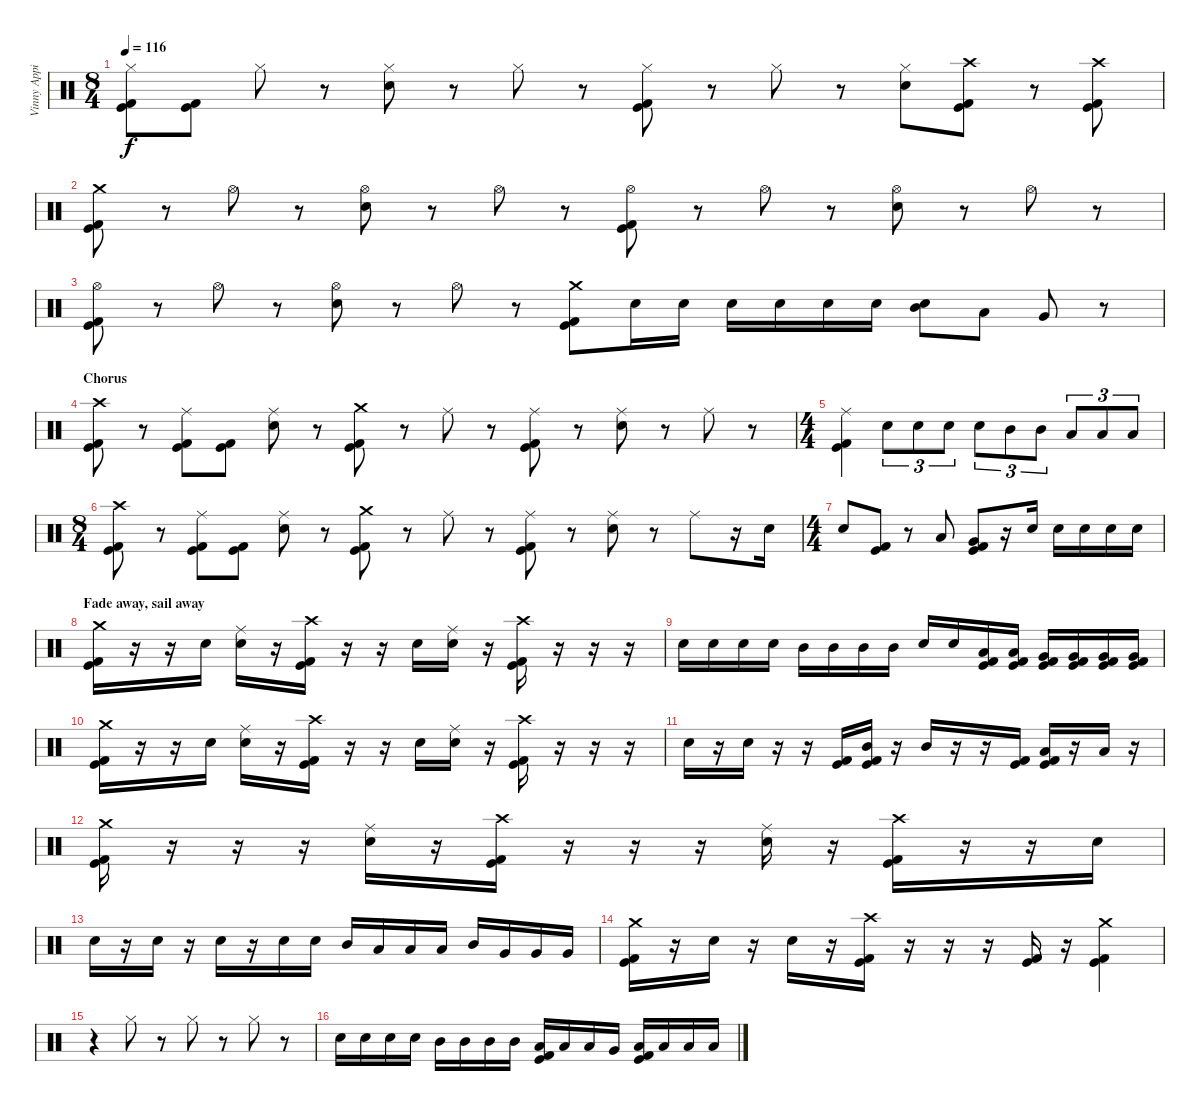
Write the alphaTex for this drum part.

\track ("Vinny Appice" "Vinny Appi") {instrument percussion}
\staff {score}
\articulation defaults
\ts (8 4)
\tempo 116
\clef neutral
\ks c
("Hi-Hat (closed)" "Kick (hit)" "Kick (hit) 2").8{dy f} ("Kick (hit)" "Kick (hit) 2").8 "Hi-Hat (closed)".8 r.8 ("Hi-Hat (closed)" "Snare (hit) 2").8 r.8 "Hi-Hat (closed)".8 r.8 ("Hi-Hat (closed)" "Kick (hit)" "Kick (hit) 2").8 r.8 "Hi-Hat (closed)".8 r.8 ("Hi-Hat (closed)" "Snare (hit) 2").8 ("Crash high (hit)" "Kick (hit)" "Kick (hit) 2").8 r.8 ("Crash high (hit)" "Kick (hit)" "Kick (hit) 2").8 |
("Crash medium (hit)" "Kick (hit)" "Kick (hit) 2").8 r.8 "Hi-Hat (open)".8 r.8 ("Hi-Hat (open)" "Snare (hit) 2").8 r.8 "Hi-Hat (open)".8 r.8 ("Hi-Hat (open)" "Kick (hit)" "Kick (hit) 2").8 r.8 "Hi-Hat (open)".8 r.8 ("Hi-Hat (open)" "Snare (hit) 2").8 r.8 "Hi-Hat (open)".8 r.8 |
("Hi-Hat (open)" "Kick (hit)" "Kick (hit) 2").8 r.8 "Hi-Hat (open)".8 r.8 ("Hi-Hat (open)" "Snare (hit) 2").8 r.8 "Hi-Hat (open)".8 r.8 ("Crash medium (hit)" "Kick (hit)" "Kick (hit) 2").8 "Snare (hit) 2".16 "Snare (hit) 2".16 "Snare (hit) 2".16 "Snare (hit) 2".16 "Snare (hit) 2".16 "Snare (hit) 2".16 ("Mid Tom (hit)" "Snare (hit) 2").8 "Low Tom (hit)".8 "Very Low Tom (hit)".8 r.8 |
\section ("" "Chorus")
("Crash high (hit)" "Kick (hit)" "Kick (hit) 2").8 r.8 ("Ride (middle)" "Kick (hit)" "Kick (hit) 2").8 ("Kick (hit)" "Kick (hit) 2").8 ("Ride (middle)" "Snare (hit) 2").8 r.8 ("Crash medium (hit)" "Kick (hit)" "Kick (hit) 2").8 r.8 "Ride (middle)".8 r.8 ("Ride (middle)" "Kick (hit)" "Kick (hit) 2").8 r.8 ("Ride (middle)" "Snare (hit) 2").8 r.8 "Ride (middle)".8 r.8 |
\ts (4 4)
("Ride (middle)" "Kick (hit)" "Kick (hit) 2").4 "Snare (hit) 2".8{tu (3 2)} "Snare (hit) 2".8{tu (3 2)} "Snare (hit) 2".8{tu (3 2)} "Snare (hit) 2".8{tu (3 2)} "Mid Tom (hit)".8{tu (3 2)} "Mid Tom (hit)".8{tu (3 2)} "Low Tom (hit)".8{tu (3 2)} "Low Tom (hit)".8{tu (3 2)} "Low Tom (hit)".8{tu (3 2)} |
\ts (8 4)
("Crash high (hit)" "Kick (hit)" "Kick (hit) 2").8 r.8 ("Ride (middle)" "Kick (hit)" "Kick (hit) 2").8 ("Kick (hit)" "Kick (hit) 2").8 ("Ride (middle)" "Snare (hit) 2").8 r.8 ("Crash medium (hit)" "Kick (hit)" "Kick (hit) 2").8 r.8 "Ride (middle)".8 r.8 ("Ride (middle)" "Kick (hit)" "Kick (hit) 2").8 r.8 ("Ride (middle)" "Snare (hit) 2").8 r.8 "Ride (middle)".8 r.16 "Snare (hit) 2".16 |
\ts (4 4)
"Snare (hit) 2".8 ("Kick (hit)" "Kick (hit) 2").8 r.8 "Low Tom (hit)".8 ("Very Low Tom (hit)" "Kick (hit)" "Kick (hit) 2").8 r.16 "Snare (hit) 2".16 "Snare (hit) 2".16 "Snare (hit) 2".16 "Snare (hit) 2".16 "Snare (hit) 2".16 |
\section ("" "Fade away, sail away")
("Crash medium (hit)" "Kick (hit)" "Kick (hit) 2").16 r.16 r.16 "Snare (hit) 2".16 ("Ride (middle)" "Snare (hit) 2").16 r.16 ("Crash high (hit)" "Kick (hit)" "Kick (hit) 2").16 r.16 r.16 "Snare (hit) 2".16 ("Ride (middle)" "Snare (hit) 2").16 r.16 ("Crash high (hit)" "Kick (hit)" "Kick (hit) 2").16 r.16 r.16 r.16 |
"Snare (hit) 2".16 "Snare (hit) 2".16 "Snare (hit) 2".16 "Snare (hit) 2".16 "Mid Tom (hit)".16 "Mid Tom (hit)".16 "Mid Tom (hit)".16 "Mid Tom (hit)".16 "Snare (hit) 2".16 "Snare (hit) 2".16 ("Low Tom (hit)" "Kick (hit)" "Kick (hit) 2").16 ("Low Tom (hit)" "Kick (hit)" "Kick (hit) 2").16 ("Very Low Tom (hit)" "Kick (hit)" "Kick (hit) 2").16 ("Very Low Tom (hit)" "Kick (hit)" "Kick (hit) 2").16 ("Very Low Tom (hit)" "Kick (hit)" "Kick (hit) 2").16 ("Very Low Tom (hit)" "Kick (hit)" "Kick (hit) 2").16 |
("Crash medium (hit)" "Kick (hit)" "Kick (hit) 2").16 r.16 r.16 "Snare (hit) 2".16 ("Ride (middle)" "Snare (hit) 2").16 r.16 ("Crash high (hit)" "Kick (hit)" "Kick (hit) 2").16 r.16 r.16 "Snare (hit) 2".16 ("Ride (middle)" "Snare (hit) 2").16 r.16 ("Crash high (hit)" "Kick (hit)" "Kick (hit) 2").16 r.16 r.16 r.16 |
"Snare (hit) 2".16 r.16 "Snare (hit) 2".16 r.16 r.16 ("Kick (hit)" "Kick (hit) 2").16 ("Mid Tom (hit)" "Kick (hit)" "Kick (hit) 2").16 r.16 "Mid Tom (hit)".16 r.16 r.16 ("Kick (hit)" "Kick (hit) 2").16 ("Low Tom (hit)" "Kick (hit)" "Kick (hit) 2").16 r.16 "Low Tom (hit)".16 r.16 |
("Crash medium (hit)" "Kick (hit)" "Kick (hit) 2").16 r.16 r.16 r.16 ("Ride (middle)" "Snare (hit) 2").16 r.16 ("Crash high (hit)" "Kick (hit)" "Kick (hit) 2").16 r.16 r.16 r.16 ("Ride (middle)" "Snare (hit) 2").16 r.16 ("Crash high (hit)" "Kick (hit)" "Kick (hit) 2").16 r.16 r.16 "Snare (hit) 2".16 |
"Snare (hit) 2".16 r.16 "Snare (hit) 2".16 r.16 "Snare (hit) 2".16 r.16 "Snare (hit) 2".16 "Snare (hit) 2".16 "Mid Tom (hit)".16 "Low Tom (hit)".16 "Low Tom (hit)".16 "Low Tom (hit)".16 "Mid Tom (hit)".16 "Very Low Tom (hit)".16 "Very Low Tom (hit)".16 "Very Low Tom (hit)".16 |
("Crash medium (hit)" "Kick (hit)" "Kick (hit) 2").16 r.16 "Snare (hit) 2".16 r.16 "Snare (hit) 2".16 r.16 ("Crash high (hit)" "Kick (hit)" "Kick (hit) 2").16 r.16 r.16 r.16 ("Kick (hit)" "Kick (hit) 2").16 r.16 ("Crash medium (hit)" "Kick (hit)" "Kick (hit) 2").4 |
r.4 "Hi-Hat (closed)".8 r.8 "Hi-Hat (closed)".8 r.8 "Hi-Hat (closed)".8 r.8 |
"Snare (hit) 2".16 "Snare (hit) 2".16 "Snare (hit) 2".16 "Snare (hit) 2".16 "Mid Tom (hit)".16 "Mid Tom (hit)".16 "Mid Tom (hit)".16 "Mid Tom (hit)".16 ("Low Tom (hit)" "Kick (hit)" "Kick (hit) 2").16 "Low Tom (hit)".16 "Low Tom (hit)".16 "Very Low Tom (hit)".16 ("Low Tom (hit)" "Kick (hit)" "Kick (hit) 2").16 "Low Tom (hit)".16 "Low Tom (hit)".16 "Low Floor Tom (hit)".16
